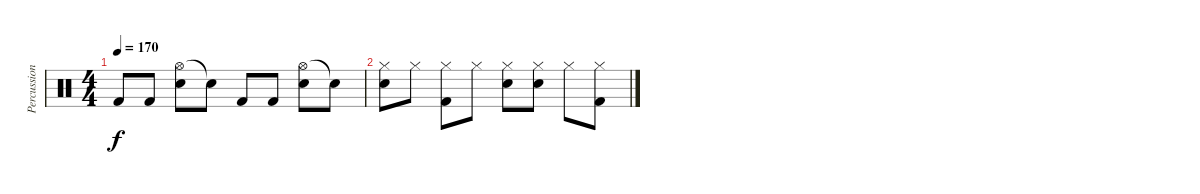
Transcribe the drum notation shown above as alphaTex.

\track ("Percussions" "Percussion") {instrument percussion}
\staff {score}
\articulation defaults
\ts (4 4)
\tempo 170
\clef neutral
\ks c "Kick (hit) 2".8{dy f} "Kick (hit) 2".8
("Hi-Hat (open)" "Snare (hit) 2").8 "Snare (hit)"{t}.8 "Kick (hit) 2".8 "Kick (hit) 2".8 ("Hi-Hat (open)" "Snare (hit) 2").8 "Snare (hit)"{t}.8 |
("Hi-Hat (closed)" "Snare (hit) 2").8 "Hi-Hat (closed)".8 ("Hi-Hat (closed)" "Kick (hit) 2").8 "Hi-Hat (closed)".8 ("Hi-Hat (closed)" "Snare (hit) 2").8 ("Hi-Hat (closed)" "Snare (hit) 2").8 "Hi-Hat (closed)".8 ("Hi-Hat (closed)" "Kick (hit) 2").8
